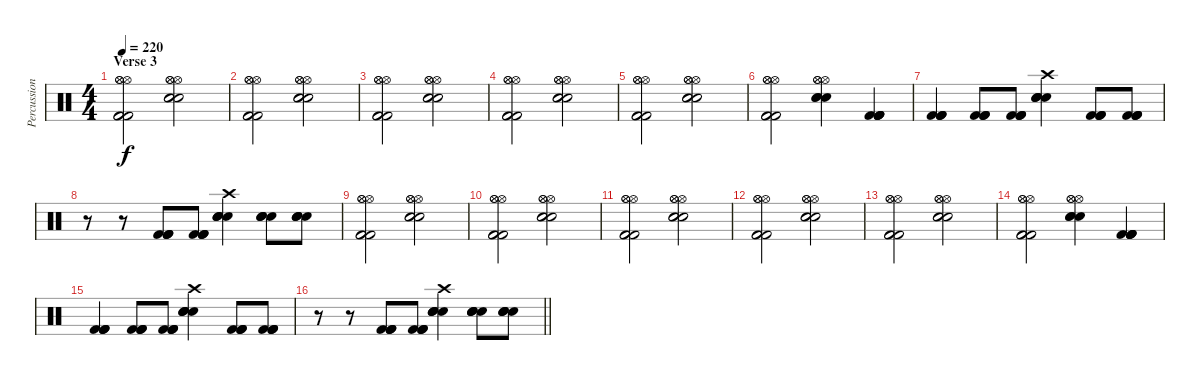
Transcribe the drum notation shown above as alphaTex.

\track ("Percussion" "Percussion") {instrument percussion}
\staff {score}
\articulation defaults
\ts (4 4)
\section ("" "Verse 3")
\tempo 220
\clef neutral
\ks c
("Hi-Hat (open)" "Hi-Hat (open)" "Hi-Hat (open)" "Kick (hit) 2" "Kick (hit) 2" "Kick (hit) 2").2{dy f} ("Hi-Hat (open)" "Hi-Hat (open)" "Hi-Hat (open)" "Snare (hit) 2" "Snare (hit) 2" "Snare (hit) 2").2 |
("Hi-Hat (open)" "Hi-Hat (open)" "Hi-Hat (open)" "Kick (hit) 2" "Kick (hit) 2" "Kick (hit) 2").2 ("Hi-Hat (open)" "Hi-Hat (open)" "Hi-Hat (open)" "Snare (hit) 2" "Snare (hit) 2" "Snare (hit) 2").2 |
("Hi-Hat (open)" "Hi-Hat (open)" "Hi-Hat (open)" "Kick (hit) 2" "Kick (hit) 2" "Kick (hit) 2").2 ("Hi-Hat (open)" "Hi-Hat (open)" "Hi-Hat (open)" "Snare (hit) 2" "Snare (hit) 2" "Snare (hit) 2").2 |
("Hi-Hat (open)" "Hi-Hat (open)" "Hi-Hat (open)" "Kick (hit) 2" "Kick (hit) 2" "Kick (hit) 2").2 ("Hi-Hat (open)" "Hi-Hat (open)" "Hi-Hat (open)" "Snare (hit) 2" "Snare (hit) 2" "Snare (hit) 2").2 |
("Hi-Hat (open)" "Hi-Hat (open)" "Hi-Hat (open)" "Kick (hit) 2" "Kick (hit) 2" "Kick (hit) 2").2 ("Hi-Hat (open)" "Hi-Hat (open)" "Hi-Hat (open)" "Snare (hit) 2" "Snare (hit) 2" "Snare (hit) 2").2 |
("Hi-Hat (open)" "Hi-Hat (open)" "Hi-Hat (open)" "Kick (hit) 2" "Kick (hit) 2" "Kick (hit) 2").2 ("Hi-Hat (open)" "Hi-Hat (open)" "Hi-Hat (open)" "Snare (hit) 2" "Snare (hit) 2" "Snare (hit) 2").4 ("Kick (hit) 2" "Kick (hit) 2" "Kick (hit) 2" "Kick (hit) 2" "Kick (hit) 2").4 |
("Kick (hit) 2" "Kick (hit) 2" "Kick (hit) 2" "Kick (hit) 2").4 ("Kick (hit) 2" "Kick (hit) 2" "Kick (hit) 2" "Kick (hit) 2").8 ("Kick (hit) 2" "Kick (hit) 2" "Kick (hit) 2" "Kick (hit) 2").8 ("Crash high (hit)" "Snare (hit) 2" "Snare (hit) 2" "Snare (hit) 2" "Snare (hit) 2").4 ("Kick (hit) 2" "Kick (hit) 2" "Kick (hit) 2" "Kick (hit) 2").8 ("Kick (hit) 2" "Kick (hit) 2" "Kick (hit) 2" "Kick (hit) 2").8 |
r.8 r.8 ("Kick (hit) 2" "Kick (hit) 2" "Kick (hit) 2" "Kick (hit) 2").8 ("Kick (hit) 2" "Kick (hit) 2" "Kick (hit) 2" "Kick (hit) 2").8 ("Crash high (hit)" "Snare (hit) 2" "Snare (hit) 2" "Snare (hit) 2" "Snare (hit) 2").4 ("Snare (hit) 2" "Snare (hit) 2" "Snare (hit) 2" "Snare (hit) 2").8 ("Snare (hit) 2" "Snare (hit) 2" "Snare (hit) 2" "Snare (hit) 2").8 |
("Hi-Hat (open)" "Hi-Hat (open)" "Hi-Hat (open)" "Kick (hit) 2" "Kick (hit) 2" "Kick (hit) 2").2 ("Hi-Hat (open)" "Hi-Hat (open)" "Hi-Hat (open)" "Snare (hit) 2" "Snare (hit) 2" "Snare (hit) 2").2 |
("Hi-Hat (open)" "Hi-Hat (open)" "Hi-Hat (open)" "Kick (hit) 2" "Kick (hit) 2" "Kick (hit) 2").2 ("Hi-Hat (open)" "Hi-Hat (open)" "Hi-Hat (open)" "Snare (hit) 2" "Snare (hit) 2" "Snare (hit) 2").2 |
("Hi-Hat (open)" "Hi-Hat (open)" "Hi-Hat (open)" "Kick (hit) 2" "Kick (hit) 2" "Kick (hit) 2").2 ("Hi-Hat (open)" "Hi-Hat (open)" "Hi-Hat (open)" "Snare (hit) 2" "Snare (hit) 2" "Snare (hit) 2").2 |
("Hi-Hat (open)" "Hi-Hat (open)" "Hi-Hat (open)" "Kick (hit) 2" "Kick (hit) 2" "Kick (hit) 2").2 ("Hi-Hat (open)" "Hi-Hat (open)" "Hi-Hat (open)" "Snare (hit) 2" "Snare (hit) 2" "Snare (hit) 2").2 |
("Hi-Hat (open)" "Hi-Hat (open)" "Hi-Hat (open)" "Kick (hit) 2" "Kick (hit) 2" "Kick (hit) 2").2 ("Hi-Hat (open)" "Hi-Hat (open)" "Hi-Hat (open)" "Snare (hit) 2" "Snare (hit) 2" "Snare (hit) 2").2 |
("Hi-Hat (open)" "Hi-Hat (open)" "Hi-Hat (open)" "Kick (hit) 2" "Kick (hit) 2" "Kick (hit) 2").2 ("Hi-Hat (open)" "Hi-Hat (open)" "Hi-Hat (open)" "Snare (hit) 2" "Snare (hit) 2" "Snare (hit) 2").4 ("Kick (hit) 2" "Kick (hit) 2" "Kick (hit) 2" "Kick (hit) 2" "Kick (hit) 2").4 |
("Kick (hit) 2" "Kick (hit) 2" "Kick (hit) 2" "Kick (hit) 2").4 ("Kick (hit) 2" "Kick (hit) 2" "Kick (hit) 2" "Kick (hit) 2").8 ("Kick (hit) 2" "Kick (hit) 2" "Kick (hit) 2" "Kick (hit) 2").8 ("Crash high (hit)" "Snare (hit) 2" "Snare (hit) 2" "Snare (hit) 2" "Snare (hit) 2").4 ("Kick (hit) 2" "Kick (hit) 2" "Kick (hit) 2" "Kick (hit) 2").8 ("Kick (hit) 2" "Kick (hit) 2" "Kick (hit) 2" "Kick (hit) 2").8 |
\barLineRight lightlight
r.8 r.8 ("Kick (hit) 2" "Kick (hit) 2" "Kick (hit) 2" "Kick (hit) 2").8 ("Kick (hit) 2" "Kick (hit) 2" "Kick (hit) 2" "Kick (hit) 2").8 ("Crash high (hit)" "Snare (hit) 2" "Snare (hit) 2" "Snare (hit) 2" "Snare (hit) 2").4 ("Snare (hit) 2" "Snare (hit) 2" "Snare (hit) 2" "Snare (hit) 2").8 ("Snare (hit) 2" "Snare (hit) 2" "Snare (hit) 2" "Snare (hit) 2").8
